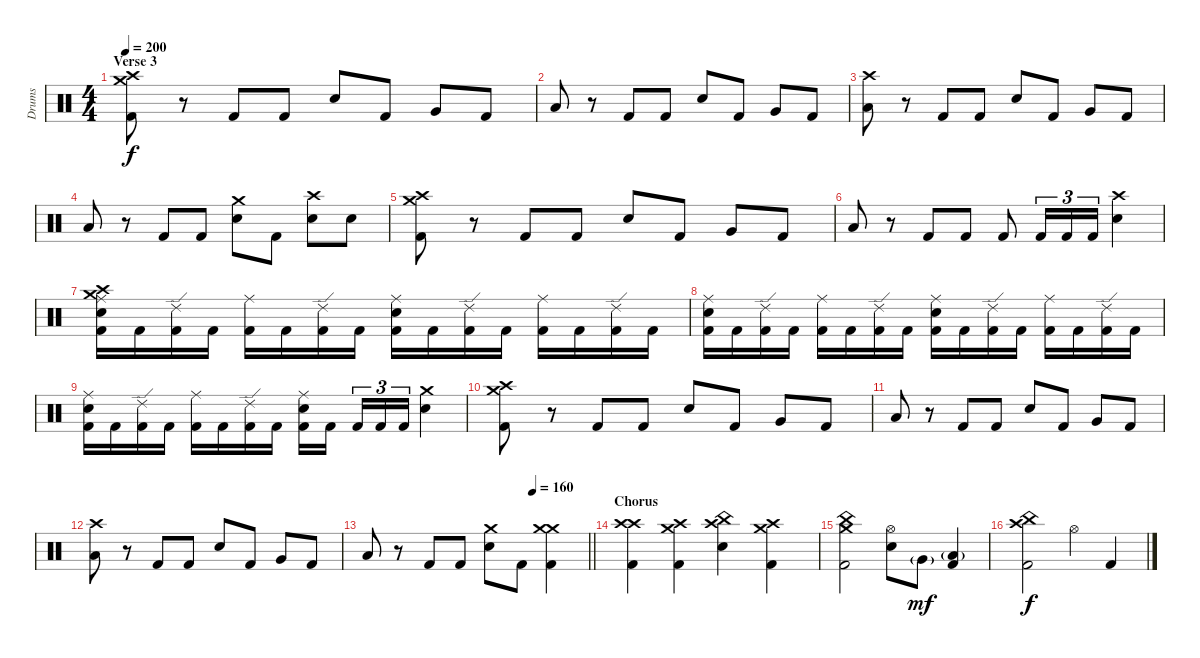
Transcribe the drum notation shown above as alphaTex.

\track ("Drums" "Drums") {instrument percussion}
\staff {score}
\articulation defaults
\ts (4 4)
\section ("" "Verse 3")
\tempo 200
\clef neutral
\ks c
("Crash high (hit)" "Crash medium (hit)" "Kick (hit) 2").8{dy f} r.8 "Kick (hit) 2".8 "Kick (hit) 2".8 "Electric Snare (hit)".8 "Kick (hit) 2".8 "Very Low Tom (hit)".8 "Kick (hit) 2".8 |
"Low Floor Tom (hit)".8 r.8 "Kick (hit) 2".8 "Kick (hit) 2".8 "Electric Snare (hit)".8 "Kick (hit) 2".8 "Very Low Tom (hit)".8 "Kick (hit) 2".8 |
("Crash high (hit)" "Low Floor Tom (hit)").8 r.8 "Kick (hit) 2".8 "Kick (hit) 2".8 "Electric Snare (hit)".8 "Kick (hit) 2".8 "Very Low Tom (hit)".8 "Kick (hit) 2".8 |
"Low Floor Tom (hit)".8 r.8 "Kick (hit) 2".8 "Kick (hit) 2".8 ("Crash medium (hit)" "Electric Snare (hit)").8 "Kick (hit) 2".8 ("Crash high (hit)" "Electric Snare (hit)").8 "Electric Snare (hit)".8 |
("Crash high (hit)" "Crash medium (hit)" "Kick (hit) 2").8 r.8 "Kick (hit) 2".8 "Kick (hit) 2".8 "Electric Snare (hit)".8 "Kick (hit) 2".8 "Very Low Tom (hit)".8 "Kick (hit) 2".8 |
"Low Floor Tom (hit)".8 r.8 "Kick (hit) 2".8 "Kick (hit) 2".8 "Kick (hit) 2".8 "Kick (hit) 2".16{tu (3 2)} "Kick (hit) 2".16{tu (3 2)} "Kick (hit) 2".16{tu (3 2)} ("Crash high (hit)" "Electric Snare (hit)").4 |
("Crash high (hit)" "Crash medium (hit)" "Ride (middle)" "Electric Snare (hit)" "Kick (hit) 2").16 "Kick (hit) 2".16 ("Ride (edge) 2" "Kick (hit) 2").16 "Kick (hit) 2".16 ("Ride (middle)" "Kick (hit) 2").16 "Kick (hit) 2".16 ("Ride (edge) 2" "Kick (hit) 2").16 "Kick (hit) 2".16 ("Ride (middle)" "Electric Snare (hit)" "Kick (hit) 2").16 "Kick (hit) 2".16 ("Ride (edge) 2" "Kick (hit) 2").16 "Kick (hit) 2".16 ("Ride (middle)" "Kick (hit) 2").16 "Kick (hit) 2".16 ("Ride (edge) 2" "Kick (hit) 2").16 "Kick (hit) 2".16 |
("Ride (middle)" "Electric Snare (hit)" "Kick (hit) 2").16 "Kick (hit) 2".16 ("Ride (edge) 2" "Kick (hit) 2").16 "Kick (hit) 2".16 ("Ride (middle)" "Kick (hit) 2").16 "Kick (hit) 2".16 ("Ride (edge) 2" "Kick (hit) 2").16 "Kick (hit) 2".16 ("Ride (middle)" "Electric Snare (hit)" "Kick (hit) 2").16 "Kick (hit) 2".16 ("Ride (edge) 2" "Kick (hit) 2").16 "Kick (hit) 2".16 ("Ride (middle)" "Kick (hit) 2").16 "Kick (hit) 2".16 ("Ride (edge) 2" "Kick (hit) 2").16 "Kick (hit) 2".16 |
("Ride (middle)" "Electric Snare (hit)" "Kick (hit) 2").16 "Kick (hit) 2".16 ("Ride (edge) 2" "Kick (hit) 2").16 "Kick (hit) 2".16 ("Ride (middle)" "Kick (hit) 2").16 "Kick (hit) 2".16 ("Ride (edge) 2" "Kick (hit) 2").16 "Kick (hit) 2".16 ("Ride (middle)" "Electric Snare (hit)" "Kick (hit) 2").16 "Kick (hit) 2".16{beam splitsecondary} "Kick (hit) 2".16{tu (3 2)} "Kick (hit) 2".16{tu (3 2)} "Kick (hit) 2".16{tu (3 2)} ("Crash medium (hit)" "Electric Snare (hit)").4 |
("Crash high (hit)" "Crash medium (hit)" "Kick (hit) 2").8 r.8 "Kick (hit) 2".8 "Kick (hit) 2".8 "Electric Snare (hit)".8 "Kick (hit) 2".8 "Very Low Tom (hit)".8 "Kick (hit) 2".8 |
"Low Floor Tom (hit)".8 r.8 "Kick (hit) 2".8 "Kick (hit) 2".8 "Electric Snare (hit)".8 "Kick (hit) 2".8 "Very Low Tom (hit)".8 "Kick (hit) 2".8 |
("Crash high (hit)" "Low Floor Tom (hit)").8 r.8 "Kick (hit) 2".8 "Kick (hit) 2".8 "Electric Snare (hit)".8 "Kick (hit) 2".8 "Very Low Tom (hit)".8 "Kick (hit) 2".8 |
\tempo (160 0.75)
\barLineRight lightlight "Low Floor Tom (hit)".8
r.8 "Kick (hit) 2".8 "Kick (hit) 2".8 ("Crash medium (hit)" "Electric Snare (hit)").8 "Kick (hit) 2".8 ("Crash medium (hit)" "Crash medium (hit)" "Kick (hit) 2").4 |
\section ("" "Chorus")
("Crash high (hit)" "Crash high (hit)" "Kick (hit) 2").4 ("Crash medium (hit)" "Crash high (hit)" "Kick (hit) 2").4 ("Crash high (hit)" "China (hit)" "Electric Snare (hit)").4 ("Crash medium (hit)" "Crash high (hit)" "Kick (hit) 2").4 |
("Crash medium (hit)" "China (hit)" "Kick (hit) 2").2 ("Hi-Hat (open)" "Electric Snare (hit)").8 "Very Low Tom (hit)"{g}.8{dy mf} ("Low Floor Tom (hit)"{g} "Kick (hit) 2").4 |
("China (hit)" "Crash high (hit)" "Kick (hit) 2").2{dy f} "Hi-Hat (open)".4 "Kick (hit) 2".4
